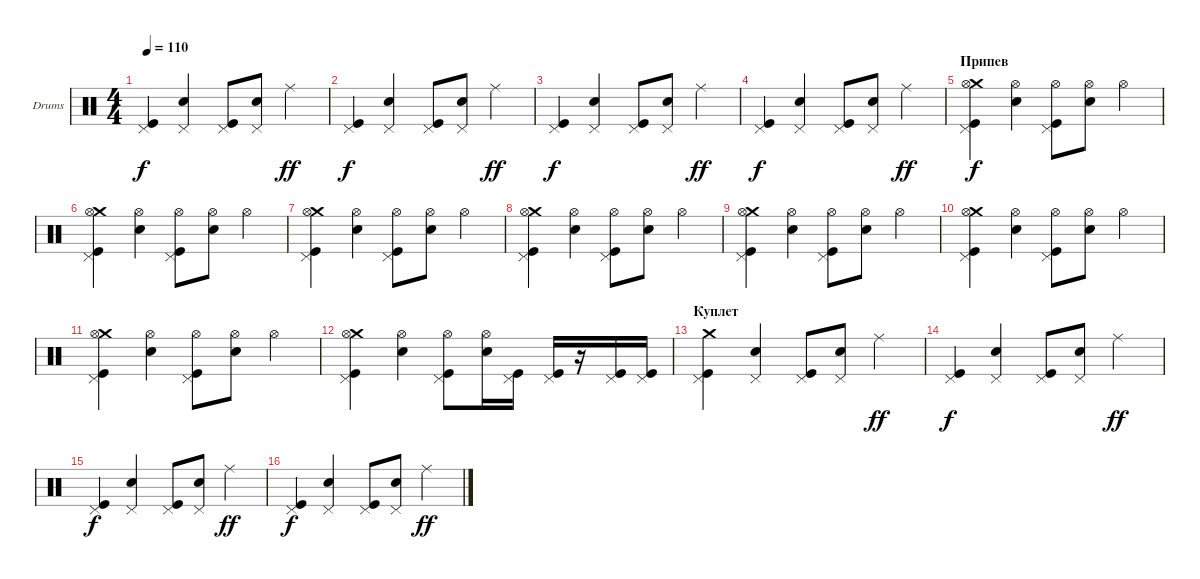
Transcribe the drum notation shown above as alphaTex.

\defaultSystemsLayout 4
\bracketExtendMode groupsimilarinstruments
\firstSystemTrackNameOrientation horizontal
\otherSystemsTrackNameOrientation horizontal
\track ("Е. Кулаков" "Drums") {instrument percussion}
\staff {score}
\articulation defaults
\ts (4 4)
\tempo 110
\clef neutral
\ks c
("Pedal Hi-Hat (hit)" "Kick (hit)").4{dy f} ("Snare (hit) 2" "Pedal Hi-Hat (hit)").4 ("Pedal Hi-Hat (hit)" "Kick (hit)").8 ("Snare (hit) 2" "Pedal Hi-Hat (hit)").8 "Ride (middle)".4{dy ff} |
("Pedal Hi-Hat (hit)" "Kick (hit)").4{dy f} ("Snare (hit) 2" "Pedal Hi-Hat (hit)").4 ("Pedal Hi-Hat (hit)" "Kick (hit)").8 ("Snare (hit) 2" "Pedal Hi-Hat (hit)").8 "Ride (middle)".4{dy ff} |
("Pedal Hi-Hat (hit)" "Kick (hit)").4{dy f} ("Snare (hit) 2" "Pedal Hi-Hat (hit)").4 ("Pedal Hi-Hat (hit)" "Kick (hit)").8 ("Snare (hit) 2" "Pedal Hi-Hat (hit)").8 "Ride (middle)".4{dy ff} |
("Pedal Hi-Hat (hit)" "Kick (hit)").4{dy f} ("Snare (hit) 2" "Pedal Hi-Hat (hit)").4 ("Pedal Hi-Hat (hit)" "Kick (hit)").8 ("Snare (hit) 2" "Pedal Hi-Hat (hit)").8 "Ride (middle)".4{dy ff} |
\section ("" "Припев")
("Crash medium (hit)" "Pedal Hi-Hat (hit)" "Kick (hit)" "Hi-Hat (open)").4{dy f} ("Snare (hit) 2" "Hi-Hat (open)").4 ("Pedal Hi-Hat (hit)" "Kick (hit)" "Hi-Hat (open)").8 ("Snare (hit) 2" "Hi-Hat (open)").8 "Hi-Hat (open)".4 |
("Crash medium (hit)" "Pedal Hi-Hat (hit)" "Kick (hit)" "Hi-Hat (open)").4 ("Snare (hit) 2" "Hi-Hat (open)").4 ("Pedal Hi-Hat (hit)" "Kick (hit)" "Hi-Hat (open)").8 ("Snare (hit) 2" "Hi-Hat (open)").8 "Hi-Hat (open)".4 |
("Crash medium (hit)" "Pedal Hi-Hat (hit)" "Kick (hit)" "Hi-Hat (open)").4 ("Snare (hit) 2" "Hi-Hat (open)").4 ("Pedal Hi-Hat (hit)" "Kick (hit)" "Hi-Hat (open)").8 ("Snare (hit) 2" "Hi-Hat (open)").8 "Hi-Hat (open)".4 |
("Crash medium (hit)" "Pedal Hi-Hat (hit)" "Kick (hit)" "Hi-Hat (open)").4 ("Snare (hit) 2" "Hi-Hat (open)").4 ("Pedal Hi-Hat (hit)" "Kick (hit)" "Hi-Hat (open)").8 ("Snare (hit) 2" "Hi-Hat (open)").8 "Hi-Hat (open)".4 |
("Crash medium (hit)" "Pedal Hi-Hat (hit)" "Kick (hit)" "Hi-Hat (open)").4 ("Snare (hit) 2" "Hi-Hat (open)").4 ("Pedal Hi-Hat (hit)" "Kick (hit)" "Hi-Hat (open)").8 ("Snare (hit) 2" "Hi-Hat (open)").8 "Hi-Hat (open)".4 |
("Crash medium (hit)" "Pedal Hi-Hat (hit)" "Kick (hit)" "Hi-Hat (open)").4 ("Snare (hit) 2" "Hi-Hat (open)").4 ("Pedal Hi-Hat (hit)" "Kick (hit)" "Hi-Hat (open)").8 ("Snare (hit) 2" "Hi-Hat (open)").8 "Hi-Hat (open)".4 |
("Crash medium (hit)" "Pedal Hi-Hat (hit)" "Kick (hit)" "Hi-Hat (open)").4 ("Snare (hit) 2" "Hi-Hat (open)").4 ("Pedal Hi-Hat (hit)" "Kick (hit)" "Hi-Hat (open)").8 ("Snare (hit) 2" "Hi-Hat (open)").8 "Hi-Hat (open)".4 |
("Crash medium (hit)" "Pedal Hi-Hat (hit)" "Kick (hit)" "Hi-Hat (open)").4 ("Snare (hit) 2" "Hi-Hat (open)").4 ("Pedal Hi-Hat (hit)" "Kick (hit)" "Hi-Hat (open)").8 ("Snare (hit) 2" "Hi-Hat (open)").16 ("Pedal Hi-Hat (hit)" "Kick (hit)").16 ("Pedal Hi-Hat (hit)" "Kick (hit)").16 r.16 ("Pedal Hi-Hat (hit)" "Kick (hit)").16 ("Pedal Hi-Hat (hit)" "Kick (hit)").16 |
\section ("" "Куплет")
("Crash medium (hit)" "Pedal Hi-Hat (hit)" "Kick (hit)").4 ("Snare (hit) 2" "Pedal Hi-Hat (hit)").4 ("Pedal Hi-Hat (hit)" "Kick (hit)").8 ("Snare (hit) 2" "Pedal Hi-Hat (hit)").8 "Ride (middle)".4{dy ff} |
("Pedal Hi-Hat (hit)" "Kick (hit)").4{dy f} ("Snare (hit) 2" "Pedal Hi-Hat (hit)").4 ("Pedal Hi-Hat (hit)" "Kick (hit)").8 ("Snare (hit) 2" "Pedal Hi-Hat (hit)").8 "Ride (middle)".4{dy ff} |
("Pedal Hi-Hat (hit)" "Kick (hit)").4{dy f} ("Snare (hit) 2" "Pedal Hi-Hat (hit)").4 ("Pedal Hi-Hat (hit)" "Kick (hit)").8 ("Snare (hit) 2" "Pedal Hi-Hat (hit)").8 "Ride (middle)".4{dy ff} |
("Pedal Hi-Hat (hit)" "Kick (hit)").4{dy f} ("Snare (hit) 2" "Pedal Hi-Hat (hit)").4 ("Pedal Hi-Hat (hit)" "Kick (hit)").8 ("Snare (hit) 2" "Pedal Hi-Hat (hit)").8 "Ride (middle)".4{dy ff}
